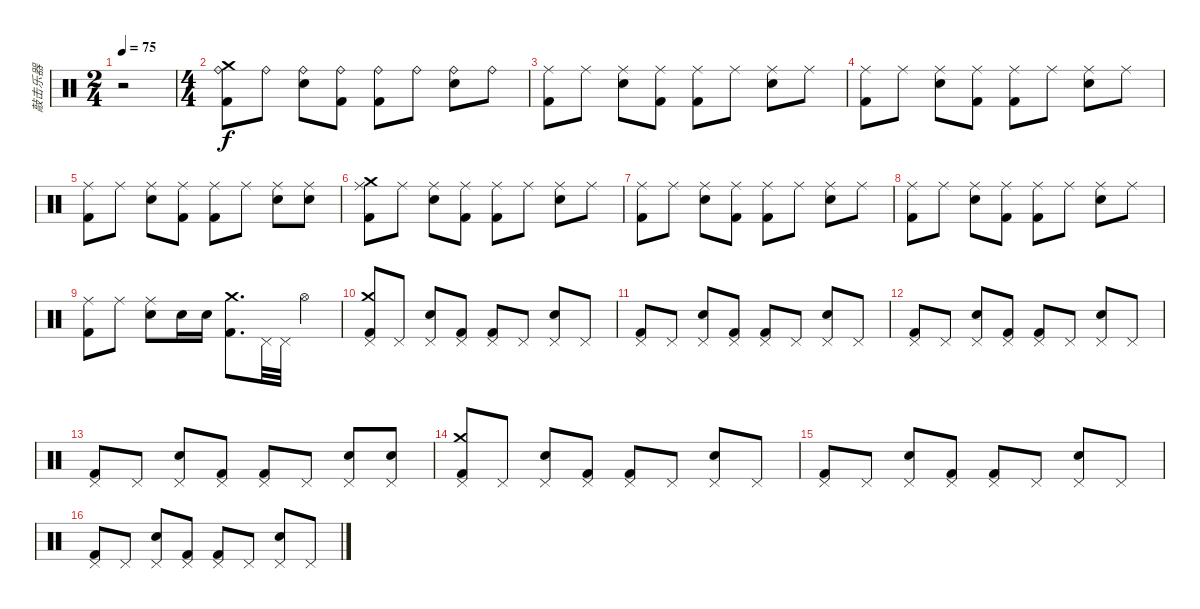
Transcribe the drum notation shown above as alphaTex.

\track ("敲击乐器" "敲击乐器") {instrument percussion}
\staff {score}
\articulation defaults
\ts (2 4)
\tempo 75
\clef neutral
\ks c
r.2{dy f} |
\ts (4 4)
("Ride (bell)" "Kick (hit) 2" "Crash medium (hit)").8 "Ride (bell)".8 ("Ride (bell)" "Electric Snare (hit)").8 ("Ride (bell)" "Kick (hit) 2").8 ("Ride (bell)" "Kick (hit) 2").8 "Ride (bell)".8 ("Ride (bell)" "Electric Snare (hit)").8 "Ride (bell)".8 |
("Ride (middle)" "Kick (hit) 2").8 "Ride (middle)".8 ("Ride (middle)" "Electric Snare (hit)").8 ("Ride (middle)" "Kick (hit) 2").8 ("Ride (middle)" "Kick (hit) 2").8 "Ride (middle)".8 ("Ride (middle)" "Electric Snare (hit)").8 "Ride (middle)".8 |
("Ride (middle)" "Kick (hit) 2").8 "Ride (middle)".8 ("Ride (middle)" "Electric Snare (hit)").8 ("Ride (middle)" "Kick (hit) 2").8 ("Ride (middle)" "Kick (hit) 2").8 "Ride (middle)".8 ("Ride (middle)" "Electric Snare (hit)").8 "Ride (middle)".8 |
("Ride (middle)" "Kick (hit) 2").8 "Ride (middle)".8 ("Ride (middle)" "Electric Snare (hit)").8 ("Ride (middle)" "Kick (hit) 2").8 ("Ride (middle)" "Kick (hit) 2").8 "Ride (middle)".8 ("Ride (middle)" "Electric Snare (hit)").8 ("Ride (middle)" "Electric Snare (hit)").8 |
("Ride (middle)" "Kick (hit) 2" "Crash medium (hit)").8 "Ride (middle)".8 ("Ride (middle)" "Electric Snare (hit)").8 ("Ride (middle)" "Kick (hit) 2").8 ("Ride (middle)" "Kick (hit) 2").8 "Ride (middle)".8 ("Ride (middle)" "Electric Snare (hit)").8 "Ride (middle)".8 |
("Ride (middle)" "Kick (hit) 2").8 "Ride (middle)".8 ("Ride (middle)" "Electric Snare (hit)").8 ("Ride (middle)" "Kick (hit) 2").8 ("Ride (middle)" "Kick (hit) 2").8 "Ride (middle)".8 ("Ride (middle)" "Electric Snare (hit)").8 "Ride (middle)".8 |
("Ride (middle)" "Kick (hit) 2").8 "Ride (middle)".8 ("Ride (middle)" "Electric Snare (hit)").8 ("Ride (middle)" "Kick (hit) 2").8 ("Ride (middle)" "Kick (hit) 2").8 "Ride (middle)".8 ("Ride (middle)" "Electric Snare (hit)").8 "Ride (middle)".8 |
("Ride (middle)" "Kick (hit) 2").8 "Ride (middle)".8 ("Ride (middle)" "Electric Snare (hit)").8 "Electric Snare (hit)".16 "Electric Snare (hit)".16 ("Kick (hit) 2" "Crash medium (hit)").8{d} "Pedal Hi-Hat (hit)".32 "Pedal Hi-Hat (hit)".32 "Hi-Hat (open)".4 |
("Pedal Hi-Hat (hit)" "Kick (hit) 2" "Crash medium (hit)").8 "Pedal Hi-Hat (hit)".8 ("Pedal Hi-Hat (hit)" "Electric Snare (hit)").8 ("Pedal Hi-Hat (hit)" "Kick (hit) 2").8 ("Pedal Hi-Hat (hit)" "Kick (hit) 2").8 "Pedal Hi-Hat (hit)".8 ("Pedal Hi-Hat (hit)" "Electric Snare (hit)").8 "Pedal Hi-Hat (hit)".8 |
("Pedal Hi-Hat (hit)" "Kick (hit) 2").8 "Pedal Hi-Hat (hit)".8 ("Pedal Hi-Hat (hit)" "Electric Snare (hit)").8 ("Pedal Hi-Hat (hit)" "Kick (hit) 2").8 ("Pedal Hi-Hat (hit)" "Kick (hit) 2").8 "Pedal Hi-Hat (hit)".8 ("Pedal Hi-Hat (hit)" "Electric Snare (hit)").8 "Pedal Hi-Hat (hit)".8 |
("Pedal Hi-Hat (hit)" "Kick (hit) 2").8 "Pedal Hi-Hat (hit)".8 ("Pedal Hi-Hat (hit)" "Electric Snare (hit)").8 ("Pedal Hi-Hat (hit)" "Kick (hit) 2").8 ("Pedal Hi-Hat (hit)" "Kick (hit) 2").8 "Pedal Hi-Hat (hit)".8 ("Pedal Hi-Hat (hit)" "Electric Snare (hit)").8 "Pedal Hi-Hat (hit)".8 |
("Pedal Hi-Hat (hit)" "Kick (hit) 2").8 "Pedal Hi-Hat (hit)".8 ("Pedal Hi-Hat (hit)" "Electric Snare (hit)").8 ("Pedal Hi-Hat (hit)" "Kick (hit) 2").8 ("Pedal Hi-Hat (hit)" "Kick (hit) 2").8 "Pedal Hi-Hat (hit)".8 ("Pedal Hi-Hat (hit)" "Electric Snare (hit)").8 ("Pedal Hi-Hat (hit)" "Electric Snare (hit)").8 |
("Pedal Hi-Hat (hit)" "Kick (hit) 2" "Crash medium (hit)").8 "Pedal Hi-Hat (hit)".8 ("Pedal Hi-Hat (hit)" "Electric Snare (hit)").8 ("Pedal Hi-Hat (hit)" "Kick (hit) 2").8 ("Pedal Hi-Hat (hit)" "Kick (hit) 2").8 "Pedal Hi-Hat (hit)".8 ("Pedal Hi-Hat (hit)" "Electric Snare (hit)").8 "Pedal Hi-Hat (hit)".8 |
("Pedal Hi-Hat (hit)" "Kick (hit) 2").8 "Pedal Hi-Hat (hit)".8 ("Pedal Hi-Hat (hit)" "Electric Snare (hit)").8 ("Pedal Hi-Hat (hit)" "Kick (hit) 2").8 ("Pedal Hi-Hat (hit)" "Kick (hit) 2").8 "Pedal Hi-Hat (hit)".8 ("Pedal Hi-Hat (hit)" "Electric Snare (hit)").8 "Pedal Hi-Hat (hit)".8 |
("Pedal Hi-Hat (hit)" "Kick (hit) 2").8 "Pedal Hi-Hat (hit)".8 ("Pedal Hi-Hat (hit)" "Electric Snare (hit)").8 ("Pedal Hi-Hat (hit)" "Kick (hit) 2").8 ("Pedal Hi-Hat (hit)" "Kick (hit) 2").8 "Pedal Hi-Hat (hit)".8 ("Pedal Hi-Hat (hit)" "Electric Snare (hit)").8 "Pedal Hi-Hat (hit)".8
